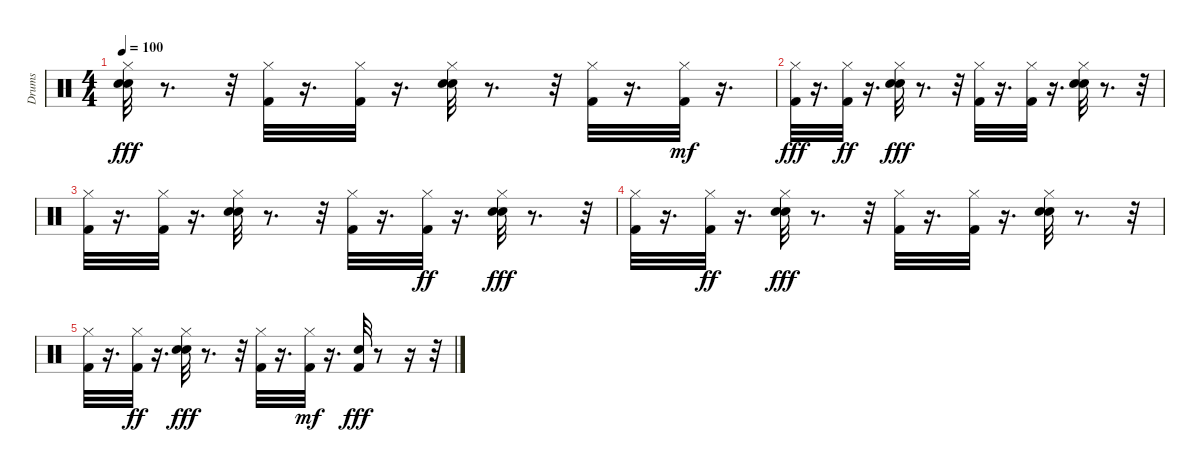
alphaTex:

\track ("Drums" "Drums") {instrument percussion}
\staff {score}
\articulation defaults
\ts (4 4)
\tempo 100
\clef neutral
\ks c
("Snare (hit) 2" "Hand Clap (hit)" "Hi-Hat (closed)").32{dy fff} r.8{d} r.32 ("Hi-Hat (closed)" "Kick (hit) 2").32 r.16{d} ("Hi-Hat (closed)" "Kick (hit) 2").32 r.16{d} ("Hand Clap (hit)" "Hi-Hat (closed)" "Snare (hit) 2").32 r.8{d} r.32 ("Hi-Hat (closed)" "Kick (hit) 2").32 r.16{d} ("Kick (hit) 2" "Hi-Hat (closed)").32{dy mf} r.16{d} |
("Kick (hit) 2" "Hi-Hat (closed)").32{dy fff} r.16{d} ("Kick (hit) 2" "Hi-Hat (closed)").32{dy ff} r.16{d} ("Snare (hit) 2" "Hand Clap (hit)" "Hi-Hat (closed)").32{dy fff} r.8{d} r.32 ("Hi-Hat (closed)" "Kick (hit) 2").32 r.16{d} ("Hi-Hat (closed)" "Kick (hit) 2").32 r.16{d} ("Hi-Hat (closed)" "Snare (hit) 2" "Hand Clap (hit)").32 r.8{d} r.32 |
("Hi-Hat (closed)" "Kick (hit) 2").32 r.16{d} ("Hi-Hat (closed)" "Kick (hit) 2").32 r.16{d} ("Hi-Hat (closed)" "Hand Clap (hit)" "Snare (hit) 2").32 r.8{d} r.32 ("Kick (hit) 2" "Hi-Hat (closed)").32 r.16{d} ("Kick (hit) 2" "Hi-Hat (closed)").32{dy ff} r.16{d} ("Hi-Hat (closed)" "Snare (hit) 2" "Hand Clap (hit)").32{dy fff} r.8{d} r.32 |
("Hi-Hat (closed)" "Kick (hit) 2").32 r.16{d} ("Kick (hit) 2" "Hi-Hat (closed)").32{dy ff} r.16{d} ("Hand Clap (hit)" "Snare (hit) 2" "Hi-Hat (closed)").32{dy fff} r.8{d} r.32 ("Hi-Hat (closed)" "Kick (hit) 2").32 r.16{d} ("Hi-Hat (closed)" "Kick (hit) 2").32 r.16{d} ("Hi-Hat (closed)" "Snare (hit) 2" "Hand Clap (hit)").32 r.8{d} r.32 |
("Hi-Hat (closed)" "Kick (hit) 2").32 r.16{d} ("Kick (hit) 2" "Hi-Hat (closed)").32{dy ff} r.16{d} ("Snare (hit) 2" "Hi-Hat (closed)" "Hand Clap (hit)").32{dy fff} r.8{d} r.32 ("Kick (hit) 2" "Hi-Hat (closed)").32 r.16{d} ("Kick (hit) 2" "Hi-Hat (closed)").32{dy mf} r.16{d} ("Kick (hit) 2" "Hand Clap (hit)").32{dy fff} r.8 r.16 r.32
